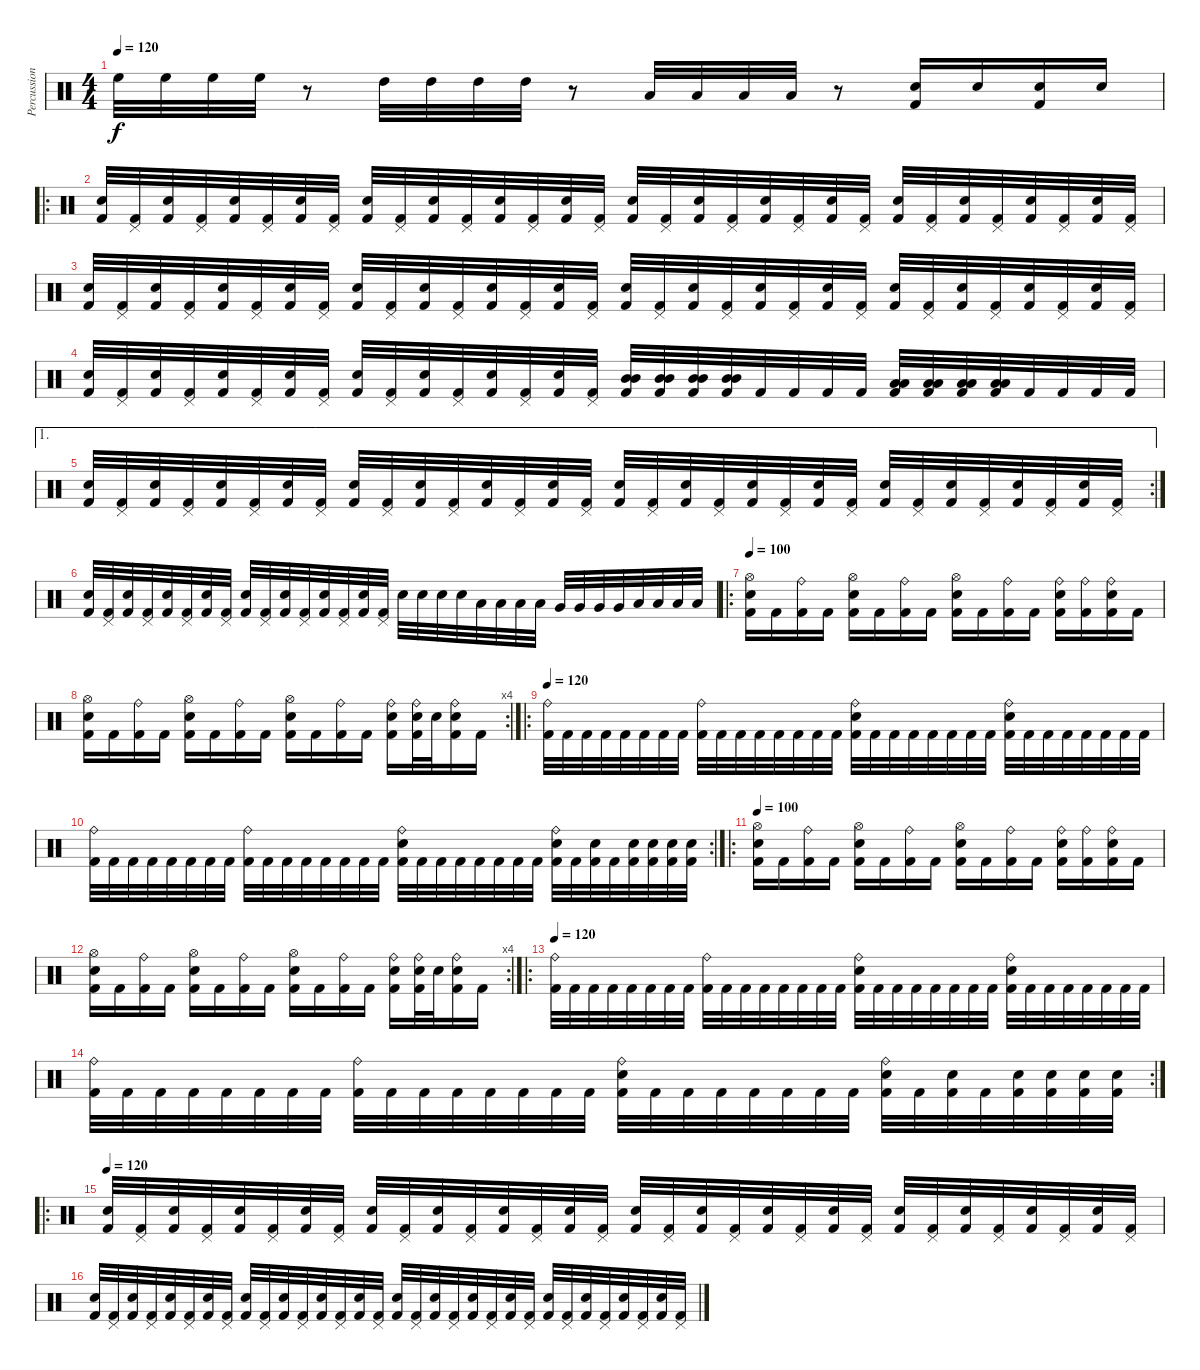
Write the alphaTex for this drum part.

\track ("Percussion" "Percussion") {instrument percussion}
\staff {score}
\articulation defaults
\ts (4 4)
\tempo 120
\clef neutral
\ks c "High Floor Tom (hit)".32{dy f} "High Floor Tom (hit)".32 "High Floor Tom (hit)".32 "High Floor Tom (hit)".32
r.8 "High Tom (hit)".32 "High Tom (hit)".32 "High Tom (hit)".32 "High Tom (hit)".32 r.8 "Low Tom (hit)".32 "Low Tom (hit)".32 "Low Tom (hit)".32 "Low Tom (hit)".32 r.8 ("Snare (hit) 2" "Kick (hit) 2").16 "Snare (hit) 2".16 ("Snare (hit) 2" "Kick (hit) 2").16 "Snare (hit) 2".16 |
\ro
("Snare (hit) 2" "Kick (hit) 2").32 ("Pedal Hi-Hat (hit)" "Kick (hit) 2").32 ("Snare (hit) 2" "Kick (hit) 2").32 ("Pedal Hi-Hat (hit)" "Kick (hit) 2").32 ("Snare (hit) 2" "Kick (hit) 2").32 ("Pedal Hi-Hat (hit)" "Kick (hit) 2").32 ("Snare (hit) 2" "Kick (hit) 2").32 ("Pedal Hi-Hat (hit)" "Kick (hit) 2").32 ("Snare (hit) 2" "Kick (hit) 2").32 ("Pedal Hi-Hat (hit)" "Kick (hit) 2").32 ("Snare (hit) 2" "Kick (hit) 2").32 ("Pedal Hi-Hat (hit)" "Kick (hit) 2").32 ("Snare (hit) 2" "Kick (hit) 2").32 ("Pedal Hi-Hat (hit)" "Kick (hit) 2").32 ("Snare (hit) 2" "Kick (hit) 2").32 ("Pedal Hi-Hat (hit)" "Kick (hit) 2").32 ("Snare (hit) 2" "Kick (hit) 2").32 ("Pedal Hi-Hat (hit)" "Kick (hit) 2").32 ("Snare (hit) 2" "Kick (hit) 2").32 ("Pedal Hi-Hat (hit)" "Kick (hit) 2").32 ("Snare (hit) 2" "Kick (hit) 2").32 ("Pedal Hi-Hat (hit)" "Kick (hit) 2").32 ("Snare (hit) 2" "Kick (hit) 2").32 ("Pedal Hi-Hat (hit)" "Kick (hit) 2").32 ("Snare (hit) 2" "Kick (hit) 2").32 ("Pedal Hi-Hat (hit)" "Kick (hit) 2").32 ("Snare (hit) 2" "Kick (hit) 2").32 ("Pedal Hi-Hat (hit)" "Kick (hit) 2").32 ("Snare (hit) 2" "Kick (hit) 2").32 ("Pedal Hi-Hat (hit)" "Kick (hit) 2").32 ("Snare (hit) 2" "Kick (hit) 2").32 ("Pedal Hi-Hat (hit)" "Kick (hit) 2").32 |
("Snare (hit) 2" "Kick (hit) 2").32 ("Pedal Hi-Hat (hit)" "Kick (hit) 2").32 ("Snare (hit) 2" "Kick (hit) 2").32 ("Pedal Hi-Hat (hit)" "Kick (hit) 2").32 ("Snare (hit) 2" "Kick (hit) 2").32 ("Pedal Hi-Hat (hit)" "Kick (hit) 2").32 ("Snare (hit) 2" "Kick (hit) 2").32 ("Pedal Hi-Hat (hit)" "Kick (hit) 2").32 ("Snare (hit) 2" "Kick (hit) 2").32 ("Pedal Hi-Hat (hit)" "Kick (hit) 2").32 ("Snare (hit) 2" "Kick (hit) 2").32 ("Pedal Hi-Hat (hit)" "Kick (hit) 2").32 ("Snare (hit) 2" "Kick (hit) 2").32 ("Pedal Hi-Hat (hit)" "Kick (hit) 2").32 ("Snare (hit) 2" "Kick (hit) 2").32 ("Pedal Hi-Hat (hit)" "Kick (hit) 2").32 ("Snare (hit) 2" "Kick (hit) 2").32 ("Pedal Hi-Hat (hit)" "Kick (hit) 2").32 ("Snare (hit) 2" "Kick (hit) 2").32 ("Pedal Hi-Hat (hit)" "Kick (hit) 2").32 ("Snare (hit) 2" "Kick (hit) 2").32 ("Pedal Hi-Hat (hit)" "Kick (hit) 2").32 ("Snare (hit) 2" "Kick (hit) 2").32 ("Pedal Hi-Hat (hit)" "Kick (hit) 2").32 ("Snare (hit) 2" "Kick (hit) 2").32 ("Pedal Hi-Hat (hit)" "Kick (hit) 2").32 ("Snare (hit) 2" "Kick (hit) 2").32 ("Pedal Hi-Hat (hit)" "Kick (hit) 2").32 ("Snare (hit) 2" "Kick (hit) 2").32 ("Pedal Hi-Hat (hit)" "Kick (hit) 2").32 ("Snare (hit) 2" "Kick (hit) 2").32 ("Pedal Hi-Hat (hit)" "Kick (hit) 2").32 |
("Snare (hit) 2" "Kick (hit) 2").32 ("Pedal Hi-Hat (hit)" "Kick (hit) 2").32 ("Snare (hit) 2" "Kick (hit) 2").32 ("Pedal Hi-Hat (hit)" "Kick (hit) 2").32 ("Snare (hit) 2" "Kick (hit) 2").32 ("Pedal Hi-Hat (hit)" "Kick (hit) 2").32 ("Snare (hit) 2" "Kick (hit) 2").32 ("Pedal Hi-Hat (hit)" "Kick (hit) 2").32 ("Snare (hit) 2" "Kick (hit) 2").32 ("Pedal Hi-Hat (hit)" "Kick (hit) 2").32 ("Snare (hit) 2" "Kick (hit) 2").32 ("Pedal Hi-Hat (hit)" "Kick (hit) 2").32 ("Snare (hit) 2" "Kick (hit) 2").32 ("Pedal Hi-Hat (hit)" "Kick (hit) 2").32 ("Snare (hit) 2" "Kick (hit) 2").32 ("Pedal Hi-Hat (hit)" "Kick (hit) 2").32 ("Mid Tom (hit)" "Mid Tom (hit)" "Kick (hit) 2").32 ("Mid Tom (hit)" "Mid Tom (hit)" "Kick (hit) 2").32 ("Mid Tom (hit)" "Mid Tom (hit)" "Kick (hit) 2").32 ("Mid Tom (hit)" "Mid Tom (hit)" "Kick (hit) 2").32 "Kick (hit) 2".32 "Kick (hit) 2".32 "Kick (hit) 2".32 "Kick (hit) 2".32 ("Low Tom (hit)" "Low Tom (hit)" "Kick (hit) 2").32 ("Low Tom (hit)" "Low Tom (hit)" "Kick (hit) 2").32 ("Low Tom (hit)" "Low Tom (hit)" "Kick (hit) 2").32 ("Low Tom (hit)" "Low Tom (hit)" "Kick (hit) 2").32 "Kick (hit) 2".32 "Kick (hit) 2".32 "Kick (hit) 2".32 "Kick (hit) 2".32 |
\ae 1
\rc 2
("Snare (hit) 2" "Kick (hit) 2").32 ("Pedal Hi-Hat (hit)" "Kick (hit) 2").32 ("Snare (hit) 2" "Kick (hit) 2").32 ("Pedal Hi-Hat (hit)" "Kick (hit) 2").32 ("Snare (hit) 2" "Kick (hit) 2").32 ("Pedal Hi-Hat (hit)" "Kick (hit) 2").32 ("Snare (hit) 2" "Kick (hit) 2").32 ("Pedal Hi-Hat (hit)" "Kick (hit) 2").32 ("Snare (hit) 2" "Kick (hit) 2").32 ("Pedal Hi-Hat (hit)" "Kick (hit) 2").32 ("Snare (hit) 2" "Kick (hit) 2").32 ("Pedal Hi-Hat (hit)" "Kick (hit) 2").32 ("Snare (hit) 2" "Kick (hit) 2").32 ("Pedal Hi-Hat (hit)" "Kick (hit) 2").32 ("Snare (hit) 2" "Kick (hit) 2").32 ("Pedal Hi-Hat (hit)" "Kick (hit) 2").32 ("Snare (hit) 2" "Kick (hit) 2").32 ("Pedal Hi-Hat (hit)" "Kick (hit) 2").32 ("Snare (hit) 2" "Kick (hit) 2").32 ("Pedal Hi-Hat (hit)" "Kick (hit) 2").32 ("Snare (hit) 2" "Kick (hit) 2").32 ("Pedal Hi-Hat (hit)" "Kick (hit) 2").32 ("Snare (hit) 2" "Kick (hit) 2").32 ("Pedal Hi-Hat (hit)" "Kick (hit) 2").32 ("Snare (hit) 2" "Kick (hit) 2").32 ("Pedal Hi-Hat (hit)" "Kick (hit) 2").32 ("Snare (hit) 2" "Kick (hit) 2").32 ("Pedal Hi-Hat (hit)" "Kick (hit) 2").32 ("Snare (hit) 2" "Kick (hit) 2").32 ("Pedal Hi-Hat (hit)" "Kick (hit) 2").32 ("Snare (hit) 2" "Kick (hit) 2").32 ("Pedal Hi-Hat (hit)" "Kick (hit) 2").32 |
("Snare (hit) 2" "Kick (hit) 2").32 ("Pedal Hi-Hat (hit)" "Kick (hit) 2").32 ("Snare (hit) 2" "Kick (hit) 2").32 ("Pedal Hi-Hat (hit)" "Kick (hit) 2").32 ("Snare (hit) 2" "Kick (hit) 2").32 ("Pedal Hi-Hat (hit)" "Kick (hit) 2").32 ("Snare (hit) 2" "Kick (hit) 2").32 ("Pedal Hi-Hat (hit)" "Kick (hit) 2").32 ("Snare (hit) 2" "Kick (hit) 2").32 ("Pedal Hi-Hat (hit)" "Kick (hit) 2").32 ("Snare (hit) 2" "Kick (hit) 2").32 ("Pedal Hi-Hat (hit)" "Kick (hit) 2").32 ("Snare (hit) 2" "Kick (hit) 2").32 ("Pedal Hi-Hat (hit)" "Kick (hit) 2").32 ("Snare (hit) 2" "Kick (hit) 2").32 ("Pedal Hi-Hat (hit)" "Kick (hit) 2").32 "Snare (hit) 2".32 "Snare (hit) 2".32 "Snare (hit) 2".32 "Snare (hit) 2".32 "Low Tom (hit)".32 "Low Tom (hit)".32 "Low Tom (hit)".32 "Low Tom (hit)".32 "Very Low Tom (hit)".32 "Very Low Tom (hit)".32 "Very Low Tom (hit)".32 "Very Low Tom (hit)".32 "Low Floor Tom (hit)".32 "Low Floor Tom (hit)".32 "Low Floor Tom (hit)".32 "Low Floor Tom (hit)".32 |
\ro
\tempo 100
("Hi-Hat (open)" "Snare (hit) 2" "Kick (hit) 2").16 "Kick (hit) 2".16 ("Ride (bell)" "Kick (hit) 2").16 "Kick (hit) 2".16 ("Hi-Hat (open)" "Snare (hit) 2" "Kick (hit) 2").16 "Kick (hit) 2".16 ("Ride (bell)" "Kick (hit) 2").16 "Kick (hit) 2".16 ("Hi-Hat (open)" "Snare (hit) 2" "Kick (hit) 2").16 "Kick (hit) 2".16 ("Ride (bell)" "Kick (hit) 2").16 "Kick (hit) 2".16 ("Ride (bell)" "Snare (hit) 2" "Kick (hit) 2").16 ("Ride (bell)" "Kick (hit) 2").16 ("Ride (bell)" "Snare (hit) 2" "Kick (hit) 2").16 "Kick (hit) 2".16 |
\rc 4
("Hi-Hat (open)" "Snare (hit) 2" "Kick (hit) 2").16 "Kick (hit) 2".16 ("Ride (bell)" "Kick (hit) 2").16 "Kick (hit) 2".16 ("Hi-Hat (open)" "Snare (hit) 2" "Kick (hit) 2").16 "Kick (hit) 2".16 ("Ride (bell)" "Kick (hit) 2").16 "Kick (hit) 2".16 ("Hi-Hat (open)" "Snare (hit) 2" "Kick (hit) 2").16 "Kick (hit) 2".16 ("Ride (bell)" "Kick (hit) 2").16 "Kick (hit) 2".16 ("Ride (bell)" "Snare (hit) 2" "Kick (hit) 2").16 ("Ride (bell)" "Snare (hit) 2" "Kick (hit) 2").32 "Snare (hit) 2".32 ("Ride (bell)" "Snare (hit) 2" "Kick (hit) 2").16 "Kick (hit) 2".16 |
\ro
\tempo 120
("Ride (bell)" "Kick (hit) 2").32 "Kick (hit) 2".32 "Kick (hit) 2".32 "Kick (hit) 2".32 "Kick (hit) 2".32 "Kick (hit) 2".32 "Kick (hit) 2".32 "Kick (hit) 2".32 ("Ride (bell)" "Kick (hit) 2").32 "Kick (hit) 2".32 "Kick (hit) 2".32 "Kick (hit) 2".32 "Kick (hit) 2".32 "Kick (hit) 2".32 "Kick (hit) 2".32 "Kick (hit) 2".32 ("Ride (bell)" "Snare (hit) 2" "Kick (hit) 2").32 "Kick (hit) 2".32 "Kick (hit) 2".32 "Kick (hit) 2".32 "Kick (hit) 2".32 "Kick (hit) 2".32 "Kick (hit) 2".32 "Kick (hit) 2".32 ("Ride (bell)" "Snare (hit) 2" "Kick (hit) 2").32 "Kick (hit) 2".32 "Kick (hit) 2".32 "Kick (hit) 2".32 "Kick (hit) 2".32 "Kick (hit) 2".32 "Kick (hit) 2".32 "Kick (hit) 2".32 |
\rc 2
("Ride (bell)" "Kick (hit) 2").32 "Kick (hit) 2".32 "Kick (hit) 2".32 "Kick (hit) 2".32 "Kick (hit) 2".32 "Kick (hit) 2".32 "Kick (hit) 2".32 "Kick (hit) 2".32 ("Ride (bell)" "Kick (hit) 2").32 "Kick (hit) 2".32 "Kick (hit) 2".32 "Kick (hit) 2".32 "Kick (hit) 2".32 "Kick (hit) 2".32 "Kick (hit) 2".32 "Kick (hit) 2".32 ("Ride (bell)" "Snare (hit) 2" "Kick (hit) 2").32 "Kick (hit) 2".32 "Kick (hit) 2".32 "Kick (hit) 2".32 "Kick (hit) 2".32 "Kick (hit) 2".32 "Kick (hit) 2".32 "Kick (hit) 2".32 ("Ride (bell)" "Snare (hit) 2" "Kick (hit) 2").32 "Kick (hit) 2".32 ("Snare (hit) 2" "Kick (hit) 2").32 "Kick (hit) 2".32 ("Snare (hit) 2" "Kick (hit) 2").32 ("Snare (hit) 2" "Kick (hit) 2").32 ("Snare (hit) 2" "Kick (hit) 2").32 ("Snare (hit) 2" "Kick (hit) 2").32 |
\ro
\tempo 100
("Hi-Hat (open)" "Snare (hit) 2" "Kick (hit) 2").16 "Kick (hit) 2".16 ("Ride (bell)" "Kick (hit) 2").16 "Kick (hit) 2".16 ("Hi-Hat (open)" "Snare (hit) 2" "Kick (hit) 2").16 "Kick (hit) 2".16 ("Ride (bell)" "Kick (hit) 2").16 "Kick (hit) 2".16 ("Hi-Hat (open)" "Snare (hit) 2" "Kick (hit) 2").16 "Kick (hit) 2".16 ("Ride (bell)" "Kick (hit) 2").16 "Kick (hit) 2".16 ("Ride (bell)" "Snare (hit) 2" "Kick (hit) 2").16 ("Ride (bell)" "Kick (hit) 2").16 ("Ride (bell)" "Snare (hit) 2" "Kick (hit) 2").16 "Kick (hit) 2".16 |
\rc 4
("Hi-Hat (open)" "Snare (hit) 2" "Kick (hit) 2").16 "Kick (hit) 2".16 ("Ride (bell)" "Kick (hit) 2").16 "Kick (hit) 2".16 ("Hi-Hat (open)" "Snare (hit) 2" "Kick (hit) 2").16 "Kick (hit) 2".16 ("Ride (bell)" "Kick (hit) 2").16 "Kick (hit) 2".16 ("Hi-Hat (open)" "Snare (hit) 2" "Kick (hit) 2").16 "Kick (hit) 2".16 ("Ride (bell)" "Kick (hit) 2").16 "Kick (hit) 2".16 ("Ride (bell)" "Snare (hit) 2" "Kick (hit) 2").16 ("Ride (bell)" "Snare (hit) 2" "Kick (hit) 2").32 "Snare (hit) 2".32 ("Ride (bell)" "Snare (hit) 2" "Kick (hit) 2").16 "Kick (hit) 2".16 |
\ro
\tempo 120
("Ride (bell)" "Kick (hit) 2").32 "Kick (hit) 2".32 "Kick (hit) 2".32 "Kick (hit) 2".32 "Kick (hit) 2".32 "Kick (hit) 2".32 "Kick (hit) 2".32 "Kick (hit) 2".32 ("Ride (bell)" "Kick (hit) 2").32 "Kick (hit) 2".32 "Kick (hit) 2".32 "Kick (hit) 2".32 "Kick (hit) 2".32 "Kick (hit) 2".32 "Kick (hit) 2".32 "Kick (hit) 2".32 ("Ride (bell)" "Snare (hit) 2" "Kick (hit) 2").32 "Kick (hit) 2".32 "Kick (hit) 2".32 "Kick (hit) 2".32 "Kick (hit) 2".32 "Kick (hit) 2".32 "Kick (hit) 2".32 "Kick (hit) 2".32 ("Ride (bell)" "Snare (hit) 2" "Kick (hit) 2").32 "Kick (hit) 2".32 "Kick (hit) 2".32 "Kick (hit) 2".32 "Kick (hit) 2".32 "Kick (hit) 2".32 "Kick (hit) 2".32 "Kick (hit) 2".32 |
\rc 2
("Ride (bell)" "Kick (hit) 2").32 "Kick (hit) 2".32 "Kick (hit) 2".32 "Kick (hit) 2".32 "Kick (hit) 2".32 "Kick (hit) 2".32 "Kick (hit) 2".32 "Kick (hit) 2".32 ("Ride (bell)" "Kick (hit) 2").32 "Kick (hit) 2".32 "Kick (hit) 2".32 "Kick (hit) 2".32 "Kick (hit) 2".32 "Kick (hit) 2".32 "Kick (hit) 2".32 "Kick (hit) 2".32 ("Ride (bell)" "Snare (hit) 2" "Kick (hit) 2").32 "Kick (hit) 2".32 "Kick (hit) 2".32 "Kick (hit) 2".32 "Kick (hit) 2".32 "Kick (hit) 2".32 "Kick (hit) 2".32 "Kick (hit) 2".32 ("Ride (bell)" "Snare (hit) 2" "Kick (hit) 2").32 "Kick (hit) 2".32 ("Snare (hit) 2" "Kick (hit) 2").32 "Kick (hit) 2".32 ("Snare (hit) 2" "Kick (hit) 2").32 ("Snare (hit) 2" "Kick (hit) 2").32 ("Snare (hit) 2" "Kick (hit) 2").32 ("Snare (hit) 2" "Kick (hit) 2").32 |
\ro
\tempo 120
("Snare (hit) 2" "Kick (hit) 2").32 ("Pedal Hi-Hat (hit)" "Kick (hit) 2").32 ("Snare (hit) 2" "Kick (hit) 2").32 ("Pedal Hi-Hat (hit)" "Kick (hit) 2").32 ("Snare (hit) 2" "Kick (hit) 2").32 ("Pedal Hi-Hat (hit)" "Kick (hit) 2").32 ("Snare (hit) 2" "Kick (hit) 2").32 ("Pedal Hi-Hat (hit)" "Kick (hit) 2").32 ("Snare (hit) 2" "Kick (hit) 2").32 ("Pedal Hi-Hat (hit)" "Kick (hit) 2").32 ("Snare (hit) 2" "Kick (hit) 2").32 ("Pedal Hi-Hat (hit)" "Kick (hit) 2").32 ("Snare (hit) 2" "Kick (hit) 2").32 ("Pedal Hi-Hat (hit)" "Kick (hit) 2").32 ("Snare (hit) 2" "Kick (hit) 2").32 ("Pedal Hi-Hat (hit)" "Kick (hit) 2").32 ("Snare (hit) 2" "Kick (hit) 2").32 ("Pedal Hi-Hat (hit)" "Kick (hit) 2").32 ("Snare (hit) 2" "Kick (hit) 2").32 ("Pedal Hi-Hat (hit)" "Kick (hit) 2").32 ("Snare (hit) 2" "Kick (hit) 2").32 ("Pedal Hi-Hat (hit)" "Kick (hit) 2").32 ("Snare (hit) 2" "Kick (hit) 2").32 ("Pedal Hi-Hat (hit)" "Kick (hit) 2").32 ("Snare (hit) 2" "Kick (hit) 2").32 ("Pedal Hi-Hat (hit)" "Kick (hit) 2").32 ("Snare (hit) 2" "Kick (hit) 2").32 ("Pedal Hi-Hat (hit)" "Kick (hit) 2").32 ("Snare (hit) 2" "Kick (hit) 2").32 ("Pedal Hi-Hat (hit)" "Kick (hit) 2").32 ("Snare (hit) 2" "Kick (hit) 2").32 ("Pedal Hi-Hat (hit)" "Kick (hit) 2").32 |
("Snare (hit) 2" "Kick (hit) 2").32 ("Pedal Hi-Hat (hit)" "Kick (hit) 2").32 ("Snare (hit) 2" "Kick (hit) 2").32 ("Pedal Hi-Hat (hit)" "Kick (hit) 2").32 ("Snare (hit) 2" "Kick (hit) 2").32 ("Pedal Hi-Hat (hit)" "Kick (hit) 2").32 ("Snare (hit) 2" "Kick (hit) 2").32 ("Pedal Hi-Hat (hit)" "Kick (hit) 2").32 ("Snare (hit) 2" "Kick (hit) 2").32 ("Pedal Hi-Hat (hit)" "Kick (hit) 2").32 ("Snare (hit) 2" "Kick (hit) 2").32 ("Pedal Hi-Hat (hit)" "Kick (hit) 2").32 ("Snare (hit) 2" "Kick (hit) 2").32 ("Pedal Hi-Hat (hit)" "Kick (hit) 2").32 ("Snare (hit) 2" "Kick (hit) 2").32 ("Pedal Hi-Hat (hit)" "Kick (hit) 2").32 ("Snare (hit) 2" "Kick (hit) 2").32 ("Pedal Hi-Hat (hit)" "Kick (hit) 2").32 ("Snare (hit) 2" "Kick (hit) 2").32 ("Pedal Hi-Hat (hit)" "Kick (hit) 2").32 ("Snare (hit) 2" "Kick (hit) 2").32 ("Pedal Hi-Hat (hit)" "Kick (hit) 2").32 ("Snare (hit) 2" "Kick (hit) 2").32 ("Pedal Hi-Hat (hit)" "Kick (hit) 2").32 ("Snare (hit) 2" "Kick (hit) 2").32 ("Pedal Hi-Hat (hit)" "Kick (hit) 2").32 ("Snare (hit) 2" "Kick (hit) 2").32 ("Pedal Hi-Hat (hit)" "Kick (hit) 2").32 ("Snare (hit) 2" "Kick (hit) 2").32 ("Pedal Hi-Hat (hit)" "Kick (hit) 2").32 ("Snare (hit) 2" "Kick (hit) 2").32 ("Pedal Hi-Hat (hit)" "Kick (hit) 2").32
